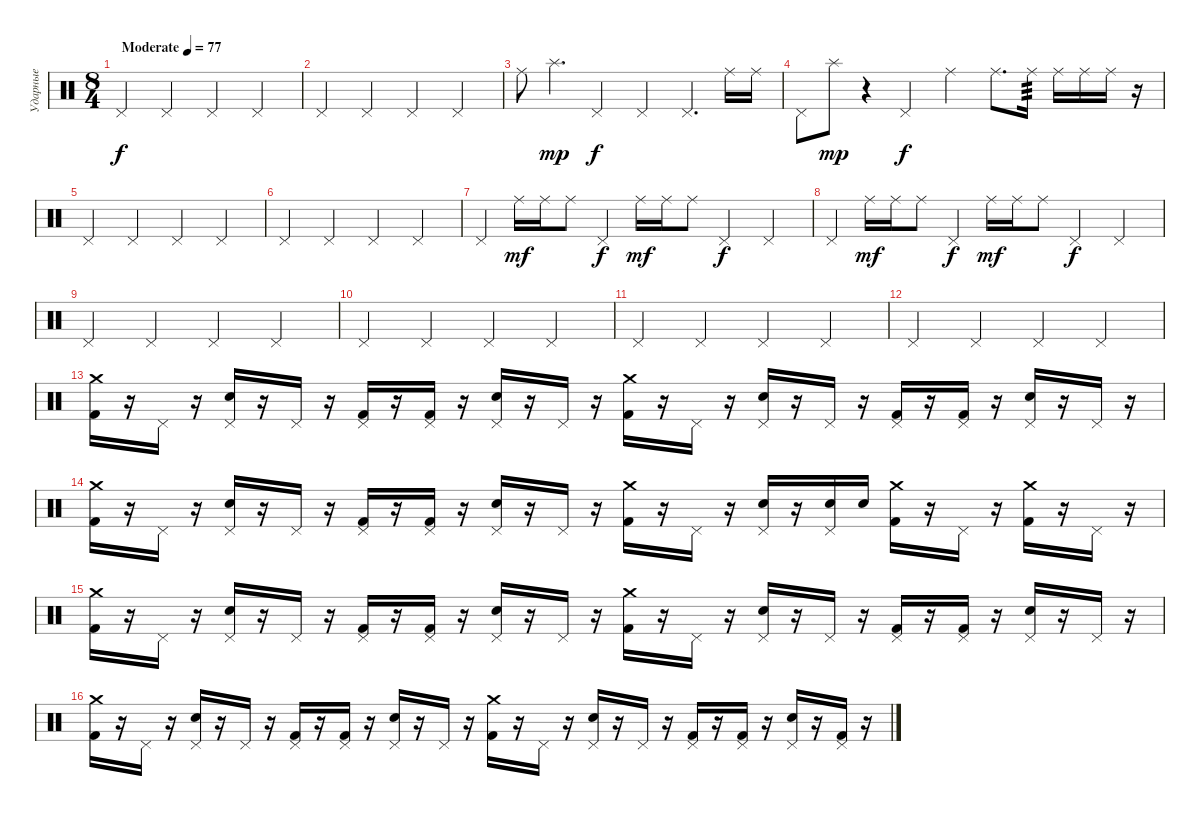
\track ("Ударные" "Ударные") {instrument percussion}
\staff
\articulation defaults
\ts (8 4)
\tempo (77 "Moderate")
\clef neutral
\ks c "Pedal Hi-Hat (hit)".2{dy f} "Pedal Hi-Hat (hit)".2 "Pedal Hi-Hat (hit)".2 "Pedal Hi-Hat (hit)".2
|
"Pedal Hi-Hat (hit)".2 "Pedal Hi-Hat (hit)".2 "Pedal Hi-Hat (hit)".2 "Pedal Hi-Hat (hit)".2 |
"Ride (middle)".8 "Splash (hit)".4{d dy mp} "Pedal Hi-Hat (hit)".2{dy f} "Pedal Hi-Hat (hit)".2 "Pedal Hi-Hat (hit)".4{d} "Ride (middle)".16 "Ride (middle)".16 |
"Pedal Hi-Hat (hit)".8 "Splash (hit)".8{dy mp} r.4 "Pedal Hi-Hat (hit)".2{dy f} "Ride (middle)".2 "Ride (middle)".8{d} "Ride (middle)".16{tp 3} "Ride (middle)".16 "Ride (middle)".16 "Ride (middle)".16 r.16 |
"Pedal Hi-Hat (hit)".2 "Pedal Hi-Hat (hit)".2 "Pedal Hi-Hat (hit)".2 "Pedal Hi-Hat (hit)".2 |
"Pedal Hi-Hat (hit)".2 "Pedal Hi-Hat (hit)".2 "Pedal Hi-Hat (hit)".2 "Pedal Hi-Hat (hit)".2 |
"Pedal Hi-Hat (hit)".4 "Ride (middle)".16{dy mf} "Ride (middle)".16 "Ride (middle)".8 "Pedal Hi-Hat (hit)".4{dy f} "Ride (middle)".16{dy mf} "Ride (middle)".16 "Ride (middle)".8 "Pedal Hi-Hat (hit)".2{dy f} "Pedal Hi-Hat (hit)".2 |
"Pedal Hi-Hat (hit)".4 "Ride (middle)".16{dy mf} "Ride (middle)".16 "Ride (middle)".8 "Pedal Hi-Hat (hit)".4{dy f} "Ride (middle)".16{dy mf} "Ride (middle)".16 "Ride (middle)".8 "Pedal Hi-Hat (hit)".2{dy f} "Pedal Hi-Hat (hit)".2 |
"Pedal Hi-Hat (hit)".2 "Pedal Hi-Hat (hit)".2 "Pedal Hi-Hat (hit)".2 "Pedal Hi-Hat (hit)".2 |
"Pedal Hi-Hat (hit)".2 "Pedal Hi-Hat (hit)".2 "Pedal Hi-Hat (hit)".2 "Pedal Hi-Hat (hit)".2 |
"Pedal Hi-Hat (hit)".2 "Pedal Hi-Hat (hit)".2 "Pedal Hi-Hat (hit)".2 "Pedal Hi-Hat (hit)".2 |
"Pedal Hi-Hat (hit)".2 "Pedal Hi-Hat (hit)".2 "Pedal Hi-Hat (hit)".2 "Pedal Hi-Hat (hit)".2 |
("Crash medium (hit)" "Kick (hit) 2").16 r.16 "Pedal Hi-Hat (hit)".16 r.16 ("Pedal Hi-Hat (hit)" "Electric Snare (hit)").16 r.16 "Pedal Hi-Hat (hit)".16 r.16 ("Pedal Hi-Hat (hit)" "Kick (hit) 2").16 r.16 ("Pedal Hi-Hat (hit)" "Kick (hit) 2").16 r.16 ("Pedal Hi-Hat (hit)" "Electric Snare (hit)").16 r.16 "Pedal Hi-Hat (hit)".16 r.16 ("Crash medium (hit)" "Kick (hit) 2").16 r.16 "Pedal Hi-Hat (hit)".16 r.16 ("Pedal Hi-Hat (hit)" "Electric Snare (hit)").16 r.16 "Pedal Hi-Hat (hit)".16 r.16 ("Pedal Hi-Hat (hit)" "Kick (hit) 2").16 r.16 ("Pedal Hi-Hat (hit)" "Kick (hit) 2").16 r.16 ("Pedal Hi-Hat (hit)" "Electric Snare (hit)").16 r.16 "Pedal Hi-Hat (hit)".16 r.16 |
("Crash medium (hit)" "Kick (hit) 2").16 r.16 "Pedal Hi-Hat (hit)".16 r.16 ("Pedal Hi-Hat (hit)" "Electric Snare (hit)").16 r.16 "Pedal Hi-Hat (hit)".16 r.16 ("Pedal Hi-Hat (hit)" "Kick (hit) 2").16 r.16 ("Pedal Hi-Hat (hit)" "Kick (hit) 2").16 r.16 ("Pedal Hi-Hat (hit)" "Electric Snare (hit)").16 r.16 "Pedal Hi-Hat (hit)".16 r.16 ("Crash medium (hit)" "Kick (hit) 2").16 r.16 "Pedal Hi-Hat (hit)".16 r.16 ("Pedal Hi-Hat (hit)" "Electric Snare (hit)").16 r.16 ("Pedal Hi-Hat (hit)" "Electric Snare (hit)").16 "Electric Snare (hit)".16 ("Crash medium (hit)" "Kick (hit) 2").16 r.16 "Pedal Hi-Hat (hit)".16 r.16 ("Crash medium (hit)" "Kick (hit) 2").16 r.16 "Pedal Hi-Hat (hit)".16 r.16 |
("Crash medium (hit)" "Kick (hit) 2").16 r.16 "Pedal Hi-Hat (hit)".16 r.16 ("Pedal Hi-Hat (hit)" "Electric Snare (hit)").16 r.16 "Pedal Hi-Hat (hit)".16 r.16 ("Pedal Hi-Hat (hit)" "Kick (hit) 2").16 r.16 ("Pedal Hi-Hat (hit)" "Kick (hit) 2").16 r.16 ("Pedal Hi-Hat (hit)" "Electric Snare (hit)").16 r.16 "Pedal Hi-Hat (hit)".16 r.16 ("Crash medium (hit)" "Kick (hit) 2").16 r.16 "Pedal Hi-Hat (hit)".16 r.16 ("Pedal Hi-Hat (hit)" "Electric Snare (hit)").16 r.16 "Pedal Hi-Hat (hit)".16 r.16 ("Pedal Hi-Hat (hit)" "Kick (hit) 2").16 r.16 ("Pedal Hi-Hat (hit)" "Kick (hit) 2").16 r.16 ("Pedal Hi-Hat (hit)" "Electric Snare (hit)").16 r.16 "Pedal Hi-Hat (hit)".16 r.16 |
("Crash medium (hit)" "Kick (hit) 2").16 r.16 "Pedal Hi-Hat (hit)".16 r.16 ("Pedal Hi-Hat (hit)" "Electric Snare (hit)").16 r.16 "Pedal Hi-Hat (hit)".16 r.16 ("Pedal Hi-Hat (hit)" "Kick (hit) 2").16 r.16 ("Pedal Hi-Hat (hit)" "Kick (hit) 2").16 r.16 ("Pedal Hi-Hat (hit)" "Electric Snare (hit)").16 r.16 "Pedal Hi-Hat (hit)".16 r.16 ("Crash medium (hit)" "Kick (hit) 2").16 r.16 "Pedal Hi-Hat (hit)".16 r.16 ("Pedal Hi-Hat (hit)" "Electric Snare (hit)").16 r.16 "Pedal Hi-Hat (hit)".16 r.16 ("Pedal Hi-Hat (hit)" "Kick (hit) 2").16 r.16 ("Pedal Hi-Hat (hit)" "Kick (hit) 2").16 r.16 ("Pedal Hi-Hat (hit)" "Electric Snare (hit)").16 r.16 ("Pedal Hi-Hat (hit)" "Kick (hit) 2").16 r.16
